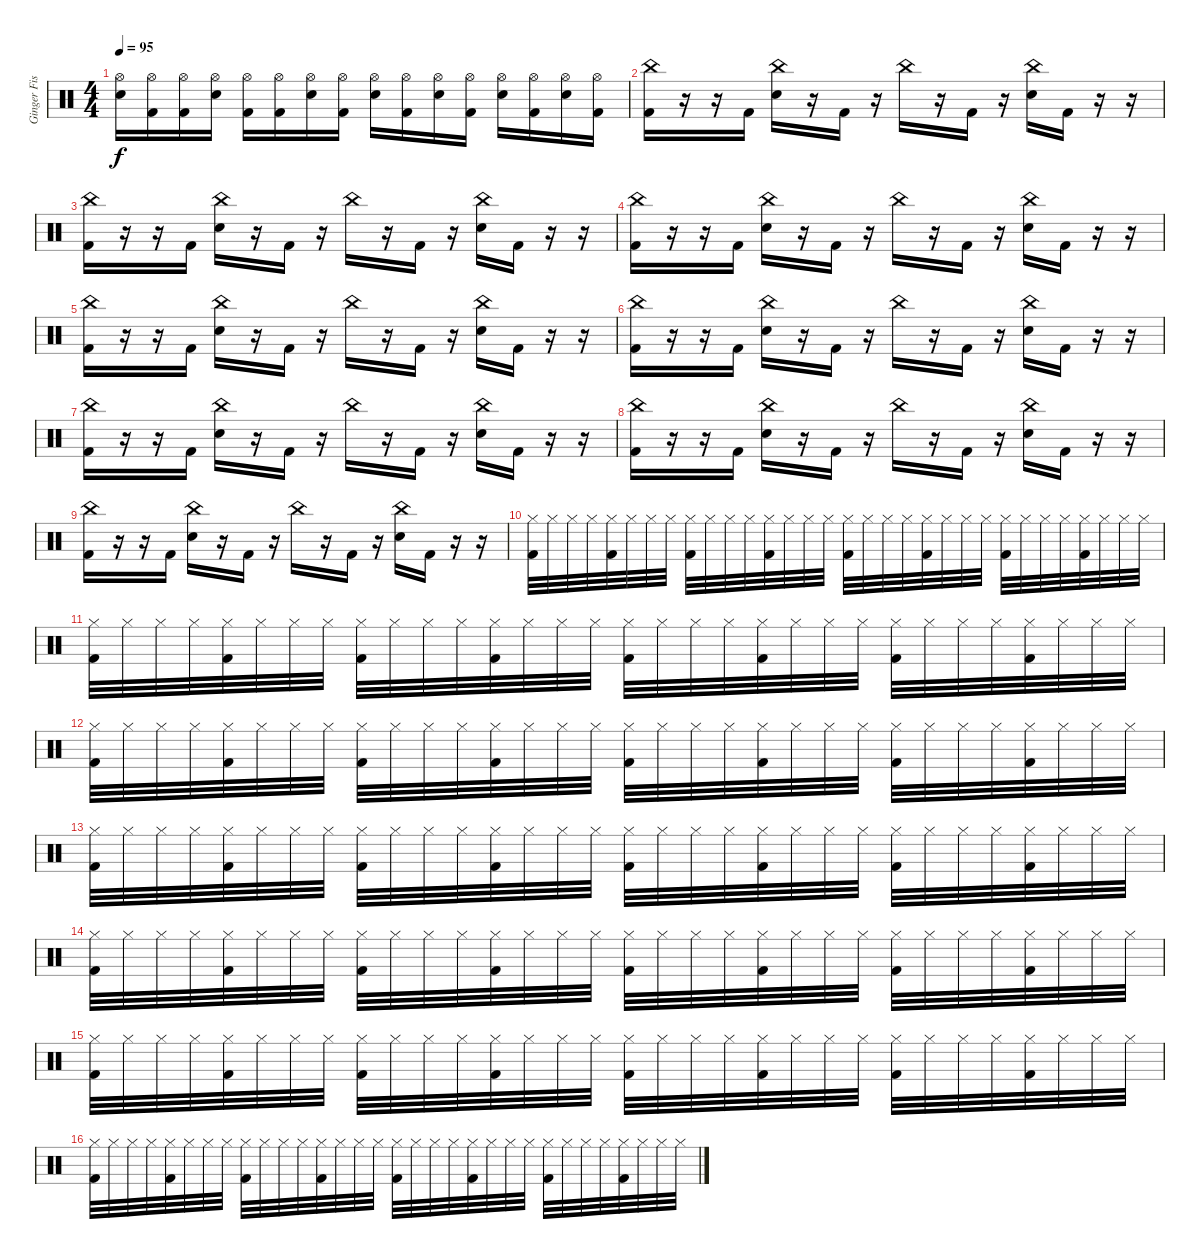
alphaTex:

\track ("Ginger Fish" "Ginger Fis") {instrument percussion}
\staff {score}
\articulation defaults
\ts (4 4)
\tempo 95
\clef neutral
\ks c
("Hi-Hat (open)" "Electric Snare (hit)").16{dy f} ("Hi-Hat (open)" "Kick (hit) 2").16 ("Hi-Hat (open)" "Kick (hit) 2").16 ("Hi-Hat (open)" "Electric Snare (hit)").16 ("Hi-Hat (open)" "Kick (hit) 2").16 ("Hi-Hat (open)" "Kick (hit) 2").16 ("Hi-Hat (open)" "Electric Snare (hit)").16 ("Hi-Hat (open)" "Kick (hit) 2").16 ("Hi-Hat (open)" "Electric Snare (hit)").16 ("Hi-Hat (open)" "Kick (hit) 2").16 ("Hi-Hat (open)" "Electric Snare (hit)").16 ("Hi-Hat (open)" "Kick (hit) 2").16 ("Hi-Hat (open)" "Electric Snare (hit)").16 ("Hi-Hat (open)" "Kick (hit) 2").16 ("Hi-Hat (open)" "Electric Snare (hit)").16 ("Hi-Hat (open)" "Kick (hit) 2").16 |
("China (hit)" "Kick (hit) 2").16 r.16 r.16 "Kick (hit) 2".16 ("China (hit)" "Electric Snare (hit)").16 r.16 "Kick (hit) 2".16 r.16 "China (hit)".16 r.16 "Kick (hit) 2".16 r.16 ("China (hit)" "Electric Snare (hit)").16 "Kick (hit) 2".16 r.16 r.16 |
("China (hit)" "Kick (hit) 2").16 r.16 r.16 "Kick (hit) 2".16 ("China (hit)" "Electric Snare (hit)").16 r.16 "Kick (hit) 2".16 r.16 "China (hit)".16 r.16 "Kick (hit) 2".16 r.16 ("China (hit)" "Electric Snare (hit)").16 "Kick (hit) 2".16 r.16 r.16 |
("China (hit)" "Kick (hit) 2").16 r.16 r.16 "Kick (hit) 2".16 ("China (hit)" "Electric Snare (hit)").16 r.16 "Kick (hit) 2".16 r.16 "China (hit)".16 r.16 "Kick (hit) 2".16 r.16 ("China (hit)" "Electric Snare (hit)").16 "Kick (hit) 2".16 r.16 r.16 |
("China (hit)" "Kick (hit) 2").16 r.16 r.16 "Kick (hit) 2".16 ("China (hit)" "Electric Snare (hit)").16 r.16 "Kick (hit) 2".16 r.16 "China (hit)".16 r.16 "Kick (hit) 2".16 r.16 ("China (hit)" "Electric Snare (hit)").16 "Kick (hit) 2".16 r.16 r.16 |
("China (hit)" "Kick (hit) 2").16 r.16 r.16 "Kick (hit) 2".16 ("China (hit)" "Electric Snare (hit)").16 r.16 "Kick (hit) 2".16 r.16 "China (hit)".16 r.16 "Kick (hit) 2".16 r.16 ("China (hit)" "Electric Snare (hit)").16 "Kick (hit) 2".16 r.16 r.16 |
("China (hit)" "Kick (hit) 2").16 r.16 r.16 "Kick (hit) 2".16 ("China (hit)" "Electric Snare (hit)").16 r.16 "Kick (hit) 2".16 r.16 "China (hit)".16 r.16 "Kick (hit) 2".16 r.16 ("China (hit)" "Electric Snare (hit)").16 "Kick (hit) 2".16 r.16 r.16 |
("China (hit)" "Kick (hit) 2").16 r.16 r.16 "Kick (hit) 2".16 ("China (hit)" "Electric Snare (hit)").16 r.16 "Kick (hit) 2".16 r.16 "China (hit)".16 r.16 "Kick (hit) 2".16 r.16 ("China (hit)" "Electric Snare (hit)").16 "Kick (hit) 2".16 r.16 r.16 |
("China (hit)" "Kick (hit) 2").16 r.16 r.16 "Kick (hit) 2".16 ("China (hit)" "Electric Snare (hit)").16 r.16 "Kick (hit) 2".16 r.16 "China (hit)".16 r.16 "Kick (hit) 2".16 r.16 ("China (hit)" "Electric Snare (hit)").16 "Kick (hit) 2".16 r.16 r.16 |
("Hi-Hat (closed)" "Kick (hit) 2").32 "Hi-Hat (closed)".32 "Hi-Hat (closed)".32 "Hi-Hat (closed)".32 ("Hi-Hat (closed)" "Kick (hit) 2").32 "Hi-Hat (closed)".32 "Hi-Hat (closed)".32 "Hi-Hat (closed)".32 ("Hi-Hat (closed)" "Kick (hit) 2").32 "Hi-Hat (closed)".32 "Hi-Hat (closed)".32 "Hi-Hat (closed)".32 ("Hi-Hat (closed)" "Kick (hit) 2").32 "Hi-Hat (closed)".32 "Hi-Hat (closed)".32 "Hi-Hat (closed)".32 ("Hi-Hat (closed)" "Kick (hit) 2").32 "Hi-Hat (closed)".32 "Hi-Hat (closed)".32 "Hi-Hat (closed)".32 ("Hi-Hat (closed)" "Kick (hit) 2").32 "Hi-Hat (closed)".32 "Hi-Hat (closed)".32 "Hi-Hat (closed)".32 ("Hi-Hat (closed)" "Kick (hit) 2").32 "Hi-Hat (closed)".32 "Hi-Hat (closed)".32 "Hi-Hat (closed)".32 ("Hi-Hat (closed)" "Kick (hit) 2").32 "Hi-Hat (closed)".32 "Hi-Hat (closed)".32 "Hi-Hat (closed)".32 |
("Hi-Hat (closed)" "Kick (hit) 2").32 "Hi-Hat (closed)".32 "Hi-Hat (closed)".32 "Hi-Hat (closed)".32 ("Hi-Hat (closed)" "Kick (hit) 2").32 "Hi-Hat (closed)".32 "Hi-Hat (closed)".32 "Hi-Hat (closed)".32 ("Hi-Hat (closed)" "Kick (hit) 2").32 "Hi-Hat (closed)".32 "Hi-Hat (closed)".32 "Hi-Hat (closed)".32 ("Hi-Hat (closed)" "Kick (hit) 2").32 "Hi-Hat (closed)".32 "Hi-Hat (closed)".32 "Hi-Hat (closed)".32 ("Hi-Hat (closed)" "Kick (hit) 2").32 "Hi-Hat (closed)".32 "Hi-Hat (closed)".32 "Hi-Hat (closed)".32 ("Hi-Hat (closed)" "Kick (hit) 2").32 "Hi-Hat (closed)".32 "Hi-Hat (closed)".32 "Hi-Hat (closed)".32 ("Hi-Hat (closed)" "Kick (hit) 2").32 "Hi-Hat (closed)".32 "Hi-Hat (closed)".32 "Hi-Hat (closed)".32 ("Hi-Hat (closed)" "Kick (hit) 2").32 "Hi-Hat (closed)".32 "Hi-Hat (closed)".32 "Hi-Hat (closed)".32 |
("Hi-Hat (closed)" "Kick (hit) 2").32 "Hi-Hat (closed)".32 "Hi-Hat (closed)".32 "Hi-Hat (closed)".32 ("Hi-Hat (closed)" "Kick (hit) 2").32 "Hi-Hat (closed)".32 "Hi-Hat (closed)".32 "Hi-Hat (closed)".32 ("Hi-Hat (closed)" "Kick (hit) 2").32 "Hi-Hat (closed)".32 "Hi-Hat (closed)".32 "Hi-Hat (closed)".32 ("Hi-Hat (closed)" "Kick (hit) 2").32 "Hi-Hat (closed)".32 "Hi-Hat (closed)".32 "Hi-Hat (closed)".32 ("Hi-Hat (closed)" "Kick (hit) 2").32 "Hi-Hat (closed)".32 "Hi-Hat (closed)".32 "Hi-Hat (closed)".32 ("Hi-Hat (closed)" "Kick (hit) 2").32 "Hi-Hat (closed)".32 "Hi-Hat (closed)".32 "Hi-Hat (closed)".32 ("Hi-Hat (closed)" "Kick (hit) 2").32 "Hi-Hat (closed)".32 "Hi-Hat (closed)".32 "Hi-Hat (closed)".32 ("Hi-Hat (closed)" "Kick (hit) 2").32 "Hi-Hat (closed)".32 "Hi-Hat (closed)".32 "Hi-Hat (closed)".32 |
("Hi-Hat (closed)" "Kick (hit) 2").32 "Hi-Hat (closed)".32 "Hi-Hat (closed)".32 "Hi-Hat (closed)".32 ("Hi-Hat (closed)" "Kick (hit) 2").32 "Hi-Hat (closed)".32 "Hi-Hat (closed)".32 "Hi-Hat (closed)".32 ("Hi-Hat (closed)" "Kick (hit) 2").32 "Hi-Hat (closed)".32 "Hi-Hat (closed)".32 "Hi-Hat (closed)".32 ("Hi-Hat (closed)" "Kick (hit) 2").32 "Hi-Hat (closed)".32 "Hi-Hat (closed)".32 "Hi-Hat (closed)".32 ("Hi-Hat (closed)" "Kick (hit) 2").32 "Hi-Hat (closed)".32 "Hi-Hat (closed)".32 "Hi-Hat (closed)".32 ("Hi-Hat (closed)" "Kick (hit) 2").32 "Hi-Hat (closed)".32 "Hi-Hat (closed)".32 "Hi-Hat (closed)".32 ("Hi-Hat (closed)" "Kick (hit) 2").32 "Hi-Hat (closed)".32 "Hi-Hat (closed)".32 "Hi-Hat (closed)".32 ("Hi-Hat (closed)" "Kick (hit) 2").32 "Hi-Hat (closed)".32 "Hi-Hat (closed)".32 "Hi-Hat (closed)".32 |
("Hi-Hat (closed)" "Kick (hit) 2").32 "Hi-Hat (closed)".32 "Hi-Hat (closed)".32 "Hi-Hat (closed)".32 ("Hi-Hat (closed)" "Kick (hit) 2").32 "Hi-Hat (closed)".32 "Hi-Hat (closed)".32 "Hi-Hat (closed)".32 ("Hi-Hat (closed)" "Kick (hit) 2").32 "Hi-Hat (closed)".32 "Hi-Hat (closed)".32 "Hi-Hat (closed)".32 ("Hi-Hat (closed)" "Kick (hit) 2").32 "Hi-Hat (closed)".32 "Hi-Hat (closed)".32 "Hi-Hat (closed)".32 ("Hi-Hat (closed)" "Kick (hit) 2").32 "Hi-Hat (closed)".32 "Hi-Hat (closed)".32 "Hi-Hat (closed)".32 ("Hi-Hat (closed)" "Kick (hit) 2").32 "Hi-Hat (closed)".32 "Hi-Hat (closed)".32 "Hi-Hat (closed)".32 ("Hi-Hat (closed)" "Kick (hit) 2").32 "Hi-Hat (closed)".32 "Hi-Hat (closed)".32 "Hi-Hat (closed)".32 ("Hi-Hat (closed)" "Kick (hit) 2").32 "Hi-Hat (closed)".32 "Hi-Hat (closed)".32 "Hi-Hat (closed)".32 |
("Hi-Hat (closed)" "Kick (hit) 2").32 "Hi-Hat (closed)".32 "Hi-Hat (closed)".32 "Hi-Hat (closed)".32 ("Hi-Hat (closed)" "Kick (hit) 2").32 "Hi-Hat (closed)".32 "Hi-Hat (closed)".32 "Hi-Hat (closed)".32 ("Hi-Hat (closed)" "Kick (hit) 2").32 "Hi-Hat (closed)".32 "Hi-Hat (closed)".32 "Hi-Hat (closed)".32 ("Hi-Hat (closed)" "Kick (hit) 2").32 "Hi-Hat (closed)".32 "Hi-Hat (closed)".32 "Hi-Hat (closed)".32 ("Hi-Hat (closed)" "Kick (hit) 2").32 "Hi-Hat (closed)".32 "Hi-Hat (closed)".32 "Hi-Hat (closed)".32 ("Hi-Hat (closed)" "Kick (hit) 2").32 "Hi-Hat (closed)".32 "Hi-Hat (closed)".32 "Hi-Hat (closed)".32 ("Hi-Hat (closed)" "Kick (hit) 2").32 "Hi-Hat (closed)".32 "Hi-Hat (closed)".32 "Hi-Hat (closed)".32 ("Hi-Hat (closed)" "Kick (hit) 2").32 "Hi-Hat (closed)".32 "Hi-Hat (closed)".32 "Hi-Hat (closed)".32 |
("Hi-Hat (closed)" "Kick (hit) 2").32 "Hi-Hat (closed)".32 "Hi-Hat (closed)".32 "Hi-Hat (closed)".32 ("Hi-Hat (closed)" "Kick (hit) 2").32 "Hi-Hat (closed)".32 "Hi-Hat (closed)".32 "Hi-Hat (closed)".32 ("Hi-Hat (closed)" "Kick (hit) 2").32 "Hi-Hat (closed)".32 "Hi-Hat (closed)".32 "Hi-Hat (closed)".32 ("Hi-Hat (closed)" "Kick (hit) 2").32 "Hi-Hat (closed)".32 "Hi-Hat (closed)".32 "Hi-Hat (closed)".32 ("Hi-Hat (closed)" "Kick (hit) 2").32 "Hi-Hat (closed)".32 "Hi-Hat (closed)".32 "Hi-Hat (closed)".32 ("Hi-Hat (closed)" "Kick (hit) 2").32 "Hi-Hat (closed)".32 "Hi-Hat (closed)".32 "Hi-Hat (closed)".32 ("Hi-Hat (closed)" "Kick (hit) 2").32 "Hi-Hat (closed)".32 "Hi-Hat (closed)".32 "Hi-Hat (closed)".32 ("Hi-Hat (closed)" "Kick (hit) 2").32 "Hi-Hat (closed)".32 "Hi-Hat (closed)".32 "Hi-Hat (closed)".32
